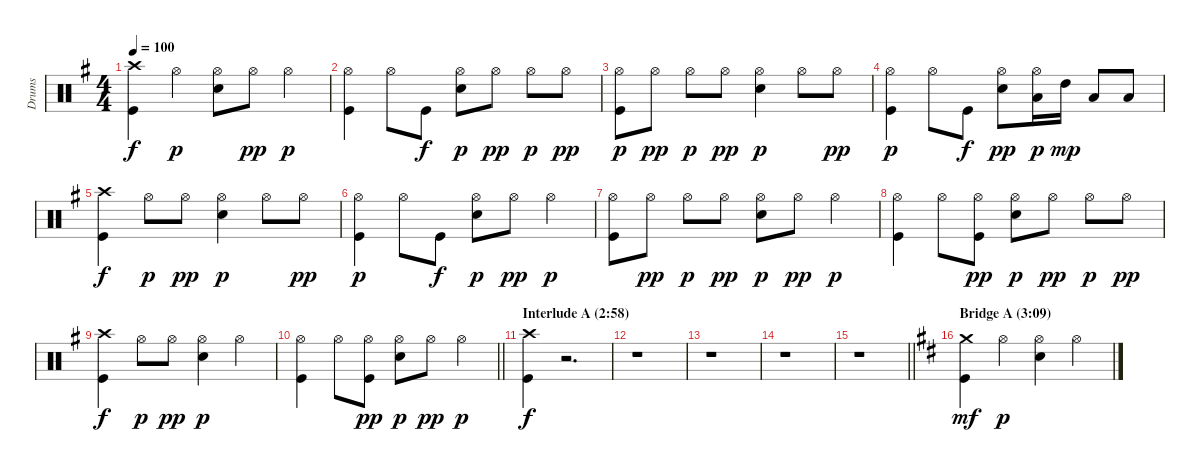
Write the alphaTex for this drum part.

\track ("Drums" "Drums") {instrument percussion}
\staff {score}
\articulation defaults
\ts (4 4)
\tempo 100
\clef neutral
\ks g
("Crash high (hit)" "Kick (hit)").4{dy f} "Hi-Hat (open)".4{dy p} ("Hi-Hat (open)" "Snare (hit) 2").8 "Hi-Hat (open)".8{dy pp} "Hi-Hat (open)".4{dy p} |
("Hi-Hat (open)" "Kick (hit)").4 "Hi-Hat (open)".8 "Kick (hit)".8{dy f} ("Hi-Hat (open)" "Snare (hit) 2").8{dy p} "Hi-Hat (open)".8{dy pp} "Hi-Hat (open)".8{dy p} "Hi-Hat (open)".8{dy pp} |
("Hi-Hat (open)" "Kick (hit)").8{dy p} "Hi-Hat (open)".8{dy pp} "Hi-Hat (open)".8{dy p} "Hi-Hat (open)".8{dy pp} ("Hi-Hat (open)" "Snare (hit) 2").4{dy p} "Hi-Hat (open)".8 "Hi-Hat (open)".8{dy pp} |
("Hi-Hat (open)" "Kick (hit)").4{dy p} "Hi-Hat (open)".8 "Kick (hit)".8{dy f} ("Hi-Hat (open)" "Snare (hit) 2").8{dy pp} ("Hi-Hat (open)" "Low Floor Tom (hit)").16{dy p} "High Tom (hit)".16{dy mp} "Low Tom (hit)".8 "Low Tom (hit)".8 |
("Crash high (hit)" "Kick (hit)").4{dy f} "Hi-Hat (open)".8{dy p} "Hi-Hat (open)".8{dy pp} ("Hi-Hat (open)" "Snare (hit) 2").4{dy p} "Hi-Hat (open)".8 "Hi-Hat (open)".8{dy pp} |
("Hi-Hat (open)" "Kick (hit)").4{dy p} "Hi-Hat (open)".8 "Kick (hit)".8{dy f} ("Hi-Hat (open)" "Snare (hit) 2").8{dy p} "Hi-Hat (open)".8{dy pp} "Hi-Hat (open)".4{dy p} |
("Hi-Hat (open)" "Kick (hit)").8 "Hi-Hat (open)".8{dy pp} "Hi-Hat (open)".8{dy p} "Hi-Hat (open)".8{dy pp} ("Hi-Hat (open)" "Snare (hit) 2").8{dy p} "Hi-Hat (open)".8{dy pp} "Hi-Hat (open)".4{dy p} |
("Hi-Hat (open)" "Kick (hit)").4 "Hi-Hat (open)".8 ("Hi-Hat (open)" "Kick (hit)").8{dy pp} ("Hi-Hat (open)" "Snare (hit) 2").8{dy p} "Hi-Hat (open)".8{dy pp} "Hi-Hat (open)".8{dy p} "Hi-Hat (open)".8{dy pp} |
("Crash high (hit)" "Kick (hit)").4{dy f} "Hi-Hat (open)".8{dy p} "Hi-Hat (open)".8{dy pp} ("Hi-Hat (open)" "Snare (hit) 2").4{dy p} "Hi-Hat (open)".4 |
\barLineRight lightlight
("Hi-Hat (open)" "Kick (hit)").4 "Hi-Hat (open)".8 ("Hi-Hat (open)" "Kick (hit)").8{dy pp} ("Hi-Hat (open)" "Snare (hit) 2").8{dy p} "Hi-Hat (open)".8{dy pp} "Hi-Hat (open)".4{dy p} |
\section ("" "Interlude A (2:58)")
("Crash high (hit)" "Kick (hit)").4{dy f} r.2{d} |
r.1 |
r.1 |
r.1 |
\barLineRight lightlight
r.1 |
\section ("" "Bridge A (3:09)")
\ks bminor
("Crash medium (hit)" "Kick (hit)").4{dy mf} "Hi-Hat (open)".4{dy p} ("Hi-Hat (open)" "Snare (hit) 2").4 "Hi-Hat (open)".4
